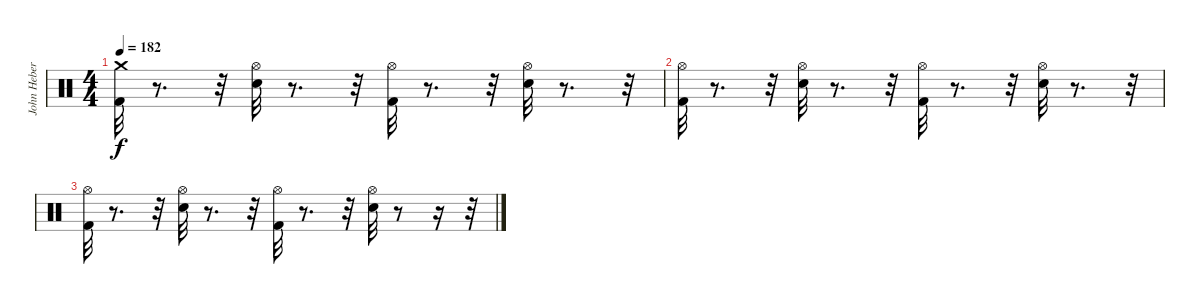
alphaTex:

\track ("John Hebert" "John Heber") {instrument percussion}
\staff {score}
\articulation defaults
\ts (4 4)
\tempo 182
\clef neutral
\ks c
("Kick (hit) 2" "Crash medium (hit)").32{dy f} r.8{d} r.32 ("Hi-Hat (open)" "Snare (hit) 2").32 r.8{d} r.32 ("Hi-Hat (open)" "Kick (hit) 2").32 r.8{d} r.32 ("Hi-Hat (open)" "Snare (hit) 2").32 r.8{d} r.32 |
("Hi-Hat (open)" "Kick (hit) 2").32 r.8{d} r.32 ("Snare (hit) 2" "Hi-Hat (open)").32 r.8{d} r.32 ("Kick (hit) 2" "Hi-Hat (open)").32 r.8{d} r.32 ("Snare (hit) 2" "Hi-Hat (open)").32 r.8{d} r.32 |
("Hi-Hat (open)" "Kick (hit) 2").32 r.8{d} r.32 ("Snare (hit) 2" "Hi-Hat (open)").32 r.8{d} r.32 ("Kick (hit) 2" "Hi-Hat (open)").32 r.8{d} r.32 ("Snare (hit) 2" "Hi-Hat (open)").32 r.8 r.16 r.32
